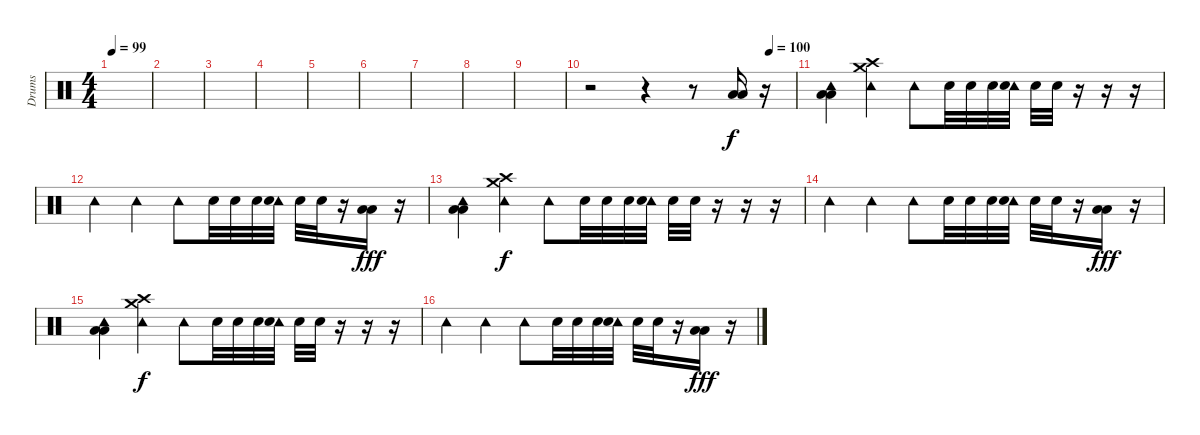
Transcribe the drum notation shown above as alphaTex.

\track ("Drums" "Drums") {instrument percussion}
\staff {score}
\articulation defaults
\ts (4 4)
\tempo 99
\clef neutral
\ks c
|
|
|
|
|
|
|
|
|
\tempo (100 0.875)
r.2 r.4 r.8 ("Low Floor Tom (hit)" "Low Tom (hit)").16 r.16 |
("Tambourine (hit)" "Low Floor Tom (hit)" "Low Tom (hit)").4 ("Tambourine (hit)" "Crash medium (hit)" "Crash high (hit)").4{dy f} "Tambourine (hit)".8 "Snare (hit) 2".32 "Snare (hit) 2".32 "Snare (hit) 2".32 ("Tambourine (hit)" "Snare (hit) 2").32 "Snare (hit) 2".32 "Snare (hit) 2".32 r.16 r.16 r.16 |
"Tambourine (hit)".4 "Tambourine (hit)".4 "Tambourine (hit)".8 "Snare (hit) 2".32 "Snare (hit) 2".32 "Snare (hit) 2".32 ("Tambourine (hit)" "Snare (hit) 2").32 "Snare (hit) 2".32 "Snare (hit) 2".32 r.16 ("Low Floor Tom (hit)" "Low Tom (hit)").16{dy fff} r.16 |
("Tambourine (hit)" "Low Floor Tom (hit)" "Low Tom (hit)").4 ("Tambourine (hit)" "Crash medium (hit)" "Crash high (hit)").4{dy f} "Tambourine (hit)".8 "Snare (hit) 2".32 "Snare (hit) 2".32 "Snare (hit) 2".32 ("Tambourine (hit)" "Snare (hit) 2").32 "Snare (hit) 2".32 "Snare (hit) 2".32 r.16 r.16 r.16 |
"Tambourine (hit)".4 "Tambourine (hit)".4 "Tambourine (hit)".8 "Snare (hit) 2".32 "Snare (hit) 2".32 "Snare (hit) 2".32 ("Tambourine (hit)" "Snare (hit) 2").32 "Snare (hit) 2".32 "Snare (hit) 2".32 r.16 ("Low Floor Tom (hit)" "Low Tom (hit)").16{dy fff} r.16 |
("Tambourine (hit)" "Low Floor Tom (hit)" "Low Tom (hit)").4 ("Tambourine (hit)" "Crash medium (hit)" "Crash high (hit)").4{dy f} "Tambourine (hit)".8 "Snare (hit) 2".32 "Snare (hit) 2".32 "Snare (hit) 2".32 ("Tambourine (hit)" "Snare (hit) 2").32 "Snare (hit) 2".32 "Snare (hit) 2".32 r.16 r.16 r.16 |
"Tambourine (hit)".4 "Tambourine (hit)".4 "Tambourine (hit)".8 "Snare (hit) 2".32 "Snare (hit) 2".32 "Snare (hit) 2".32 ("Tambourine (hit)" "Snare (hit) 2").32 "Snare (hit) 2".32 "Snare (hit) 2".32 r.16 ("Low Floor Tom (hit)" "Low Tom (hit)").16{dy fff} r.16
